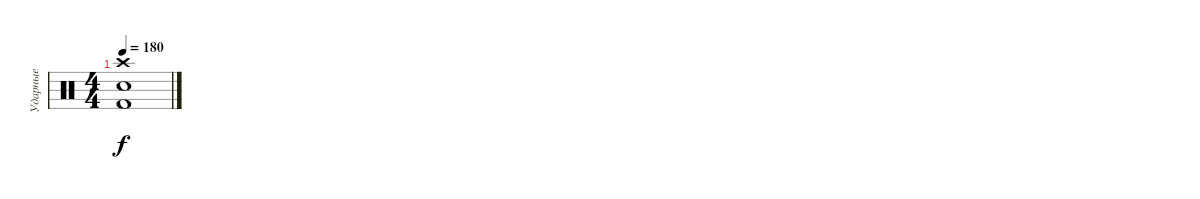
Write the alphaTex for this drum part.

\track ("Ударные" "Ударные") {instrument percussion}
\staff {score}
\articulation defaults
\ts (4 4)
\tempo 180
\clef neutral
\ks c
("Crash high (hit)" "Electric Snare (hit)" "Kick (hit) 2").1{dy f}
